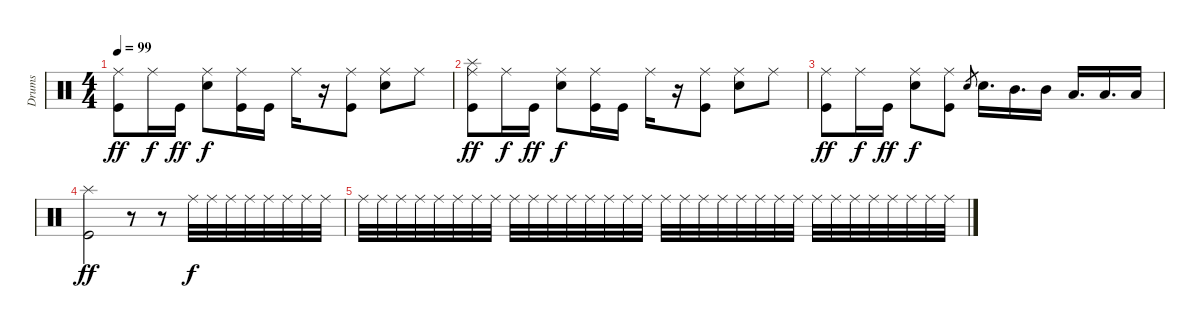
\track ("Drums" "Drums") {instrument percussion}
\staff {score}
\articulation defaults
\ts (4 4)
\tempo 99
\clef neutral
\ks c
("Ride (middle)" "Kick (hit)").8{dy ff} "Ride (middle)".16{dy f} "Kick (hit)".16{dy ff} ("Ride (middle)" "Electric Snare (hit)").8{dy f} ("Ride (middle)" "Kick (hit)").16 "Kick (hit)".16 "Ride (middle)".16 r.16 ("Ride (middle)" "Kick (hit)").8 ("Ride (middle)" "Electric Snare (hit)").8 "Ride (middle)".8 |
("Splash (hit)" "Ride (middle)" "Kick (hit)").8{dy ff} "Ride (middle)".16{dy f} "Kick (hit)".16{dy ff} ("Ride (middle)" "Electric Snare (hit)").8{dy f} ("Ride (middle)" "Kick (hit)").16 "Kick (hit)".16 "Ride (middle)".16 r.16 ("Ride (middle)" "Kick (hit)").8 ("Ride (middle)" "Electric Snare (hit)").8 "Ride (middle)".8 |
("Ride (middle)" "Kick (hit)").8{dy ff} "Ride (middle)".16{dy f} "Kick (hit)".16{dy ff} ("Ride (middle)" "Electric Snare (hit)").8{dy f} ("Ride (middle)" "Kick (hit)").8 "Electric Snare (hit)".8{gr} "Electric Snare (hit)".16{d} "Mid Tom (hit)".16{d} "Mid Tom (hit)".16 "Low Tom (hit)".16{d} "Low Tom (hit)".16{d} "Low Tom (hit)".16 |
("Splash (hit)" "Kick (hit)").2{dy ff} r.8 r.8{volume 5} "Ride (middle)".32{dy f} "Ride (middle)".32 "Ride (middle)".32 "Ride (middle)".32 "Ride (middle)".32 "Ride (middle)".32 "Ride (middle)".32 "Ride (middle)".32 |
"Ride (middle)".32 "Ride (middle)".32 "Ride (middle)".32 "Ride (middle)".32 "Ride (middle)".32 "Ride (middle)".32 "Ride (middle)".32 "Ride (middle)".32 "Ride (middle)".32 "Ride (middle)".32 "Ride (middle)".32 "Ride (middle)".32 "Ride (middle)".32 "Ride (middle)".32 "Ride (middle)".32 "Ride (middle)".32 "Ride (middle)".32 "Ride (middle)".32 "Ride (middle)".32 "Ride (middle)".32 "Ride (middle)".32 "Ride (middle)".32 "Ride (middle)".32 "Ride (middle)".32 "Ride (middle)".32 "Ride (middle)".32 "Ride (middle)".32 "Ride (middle)".32 "Ride (middle)".32 "Ride (middle)".32 "Ride (middle)".32 "Ride (middle)".32
